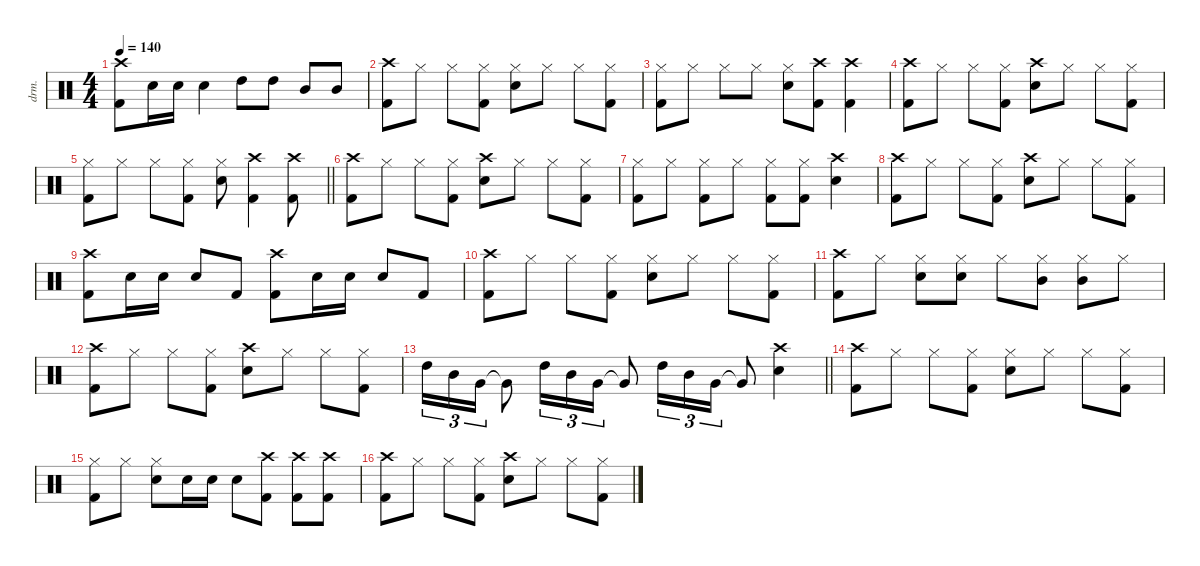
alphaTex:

\defaultSystemsLayout 4
\hideDynamics
\bracketExtendMode nobrackets
\otherSystemsTrackNameOrientation horizontal
\track ("Drums" "drm.") {defaultSystemsLayout 4 instrument percussion}
\staff {score}
\articulation defaults
\ts (4 4)
\tempo 140
\clef neutral
\ks aminor
("Crash high (hit)" "Kick (hit) 2").8{dy f beam Down} "Snare (hit) 2".16{beam Down} "Snare (hit) 2".16{beam Down} "Snare (hit) 2".4{beam Down} "High Tom (hit)".8{beam Down} "High Tom (hit)".8{beam Down} "Mid Tom (hit)".8{beam Up} "Mid Tom (hit)".8{beam Up} |
("Crash high (hit)" "Kick (hit) 2").8{beam Down} "Hi-Hat (closed)".8{beam Down} "Hi-Hat (closed)".8{beam Down} ("Hi-Hat (closed)" "Kick (hit) 2").8{beam Down} ("Hi-Hat (closed)" "Snare (hit) 2").8{beam Down} "Hi-Hat (closed)".8{beam Down} "Hi-Hat (closed)".8{beam Down} ("Hi-Hat (closed)" "Kick (hit) 2").8{beam Down} |
("Hi-Hat (closed)" "Kick (hit) 2").8{beam Down} "Hi-Hat (closed)".8{beam Down} "Hi-Hat (closed)".8{beam Down} "Hi-Hat (closed)".8{beam Down} ("Hi-Hat (closed)" "Snare (hit) 2").8{beam Down} ("Crash high (hit)" "Kick (hit) 2").8{beam Down} ("Crash high (hit)" "Kick (hit) 2").4{beam Down} |
("Crash high (hit)" "Kick (hit) 2").8{beam Down} "Hi-Hat (closed)".8{beam Down} "Hi-Hat (closed)".8{beam Down} ("Hi-Hat (closed)" "Kick (hit) 2").8{beam Down} ("Crash high (hit)" "Snare (hit) 2").8{beam Down} "Hi-Hat (closed)".8{beam Down} "Hi-Hat (closed)".8{beam Down} ("Hi-Hat (closed)" "Kick (hit) 2").8{beam Down} |
\barLineRight lightlight
("Hi-Hat (closed)" "Kick (hit) 2").8{beam Down} "Hi-Hat (closed)".8{beam Down} "Hi-Hat (closed)".8{beam Down} ("Hi-Hat (closed)" "Kick (hit) 2").8{beam Down} ("Hi-Hat (closed)" "Snare (hit) 2").8{beam Down} ("Crash high (hit)" "Kick (hit) 2").4{beam Down} ("Crash high (hit)" "Kick (hit) 2").8{beam Down} |
("Crash high (hit)" "Kick (hit) 2").8{beam Down} "Hi-Hat (closed)".8{beam Down} "Hi-Hat (closed)".8{beam Down} ("Hi-Hat (closed)" "Kick (hit) 2").8{beam Down} ("Crash high (hit)" "Snare (hit) 2").8{beam Down} "Hi-Hat (closed)".8{beam Down} "Hi-Hat (closed)".8{beam Down} ("Hi-Hat (closed)" "Kick (hit) 2").8{beam Down} |
("Hi-Hat (closed)" "Kick (hit) 2").8{beam Down} "Hi-Hat (closed)".8{beam Down} ("Hi-Hat (closed)" "Kick (hit) 2").8{beam Down} "Hi-Hat (closed)".8{beam Down} ("Hi-Hat (closed)" "Kick (hit) 2").8{beam Down} ("Hi-Hat (closed)" "Kick (hit) 2").8{beam Down} ("Crash high (hit)" "Snare (hit) 2").4{beam Down} |
("Crash high (hit)" "Kick (hit) 2").8{beam Down} "Hi-Hat (closed)".8{beam Down} "Hi-Hat (closed)".8{beam Down} ("Hi-Hat (closed)" "Kick (hit) 2").8{beam Down} ("Crash high (hit)" "Snare (hit) 2").8{beam Down} "Hi-Hat (closed)".8{beam Down} "Hi-Hat (closed)".8{beam Down} ("Hi-Hat (closed)" "Kick (hit) 2").8{beam Down} |
("Crash high (hit)" "Kick (hit) 2").8{beam Down} "Snare (hit) 2".16{beam Down} "Snare (hit) 2".16{beam Down} "Snare (hit) 2".8{beam Up} "Kick (hit) 2".8{beam Up} ("Crash high (hit)" "Kick (hit) 2").8{beam Down} "Snare (hit) 2".16{beam Down} "Snare (hit) 2".16{beam Down} "Snare (hit) 2".8{beam Up} "Kick (hit) 2".8{beam Up} |
("Crash high (hit)" "Kick (hit) 2").8{beam Down} "Hi-Hat (closed)".8{beam Down} "Hi-Hat (closed)".8{beam Down} ("Hi-Hat (closed)" "Kick (hit) 2").8{beam Down} ("Hi-Hat (closed)" "Snare (hit) 2").8{beam Down} "Hi-Hat (closed)".8{beam Down} "Hi-Hat (closed)".8{beam Down} ("Hi-Hat (closed)" "Kick (hit) 2").8{beam Down} |
("Crash high (hit)" "Kick (hit) 2").8{beam Down} "Hi-Hat (closed)".8{beam Down} ("Hi-Hat (closed)" "Snare (hit) 2").8{beam Down} ("Hi-Hat (closed)" "Snare (hit) 2").8{beam Down} "Hi-Hat (closed)".8{beam Down} ("Hi-Hat (closed)" "Mid Tom (hit)").8{beam Down} ("Hi-Hat (closed)" "Mid Tom (hit)").8{beam Down} "Hi-Hat (closed)".8{beam Down} |
("Crash high (hit)" "Kick (hit) 2").8{beam Down} "Hi-Hat (closed)".8{beam Down} "Hi-Hat (closed)".8{beam Down} ("Hi-Hat (closed)" "Kick (hit) 2").8{beam Down} ("Crash high (hit)" "Snare (hit) 2").8{beam Down} "Hi-Hat (closed)".8{beam Down} "Hi-Hat (closed)".8{beam Down} ("Hi-Hat (closed)" "Kick (hit) 2").8{beam Down} |
\barLineRight lightlight "High Tom (hit)".16{tu (3 2) beam Down} "Mid Tom (hit)".16{tu (3 2) beam Down} "Very Low Tom (hit)".16{tu (3 2) beam Down} "Very Low Tom (hit)"{t}.8{dy mf beam Down} "High Tom (hit)".16{tu (3 2) dy f beam Down} "Mid Tom (hit)".16{tu (3 2) beam Down} "Very Low Tom (hit)".16{tu (3 2) beam Down} "Very Low Tom (hit)"{t}.8{dy mf beam Up} "High Tom (hit)".16{tu (3 2) dy f beam Down} "Mid Tom (hit)".16{tu (3 2) beam Down} "Very Low Tom (hit)".16{tu (3 2) beam Down} "Very Low Tom (hit)"{t}.8{dy mf beam Up}
("Crash high (hit)" "Snare (hit) 2").4{dy f beam Down} |
("Crash high (hit)" "Kick (hit) 2").8{beam Down} "Hi-Hat (closed)".8{beam Down} "Hi-Hat (closed)".8{beam Down} ("Hi-Hat (closed)" "Kick (hit) 2").8{beam Down} ("Hi-Hat (closed)" "Snare (hit) 2").8{beam Down} "Hi-Hat (closed)".8{beam Down} "Hi-Hat (closed)".8{beam Down} ("Hi-Hat (closed)" "Kick (hit) 2").8{beam Down} |
("Hi-Hat (closed)" "Kick (hit) 2").8{beam Down} "Hi-Hat (closed)".8{beam Down} ("Hi-Hat (closed)" "Snare (hit) 2").8{beam Down} "Snare (hit) 2".16{beam Down} "Snare (hit) 2".16{beam Down} "Snare (hit) 2".8{beam Down} ("Crash high (hit)" "Kick (hit) 2").8{beam Down} ("Crash high (hit)" "Kick (hit) 2").8{beam Down} ("Crash high (hit)" "Kick (hit) 2").8{beam Down} |
("Crash high (hit)" "Kick (hit) 2").8{beam Down} "Hi-Hat (closed)".8{beam Down} "Hi-Hat (closed)".8{beam Down} ("Hi-Hat (closed)" "Kick (hit) 2").8{beam Down} ("Crash high (hit)" "Snare (hit) 2").8{beam Down} "Hi-Hat (closed)".8{beam Down} "Hi-Hat (closed)".8{beam Down} ("Hi-Hat (closed)" "Kick (hit) 2").8{beam Down}
